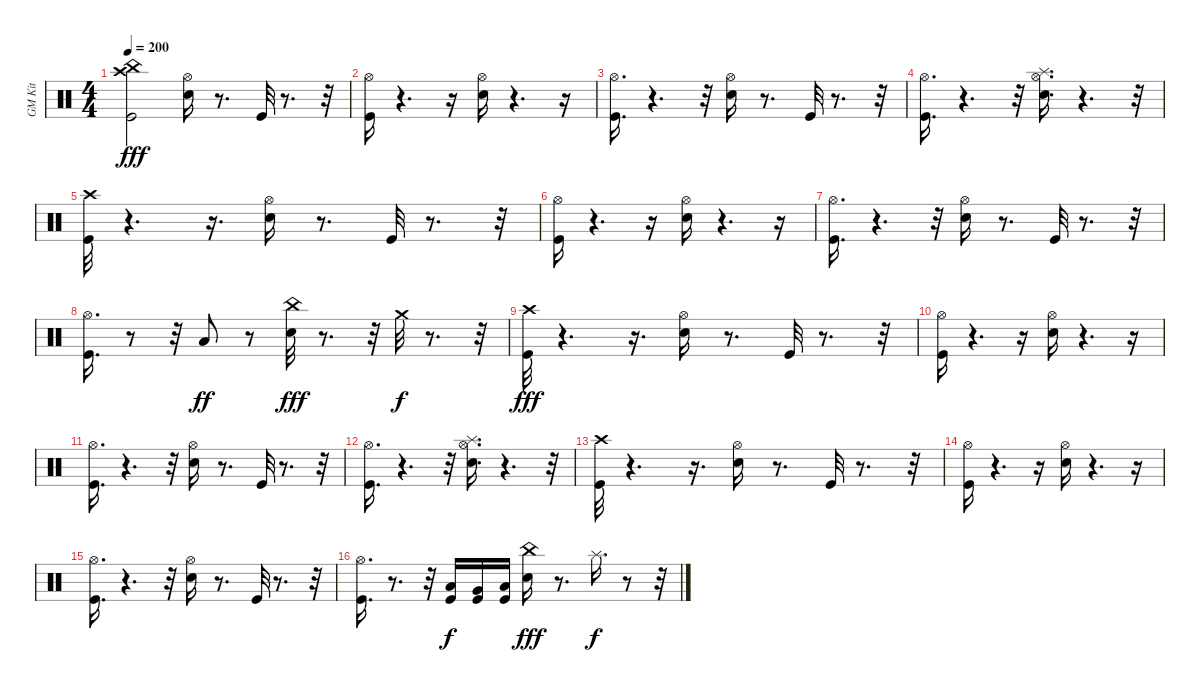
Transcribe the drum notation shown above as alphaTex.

\track ("GM Kit" "GM Kit") {instrument percussion}
\staff {score}
\articulation defaults
\ts (4 4)
\tempo 200
\clef neutral
\ks c
("Kick (hit)" "Crash high (hit)" "China (hit)").2{dy fff} ("Snare (hit) 2" "Hi-Hat (open)").16 r.8{d} "Kick (hit)".32 r.8{d} r.32 |
("Kick (hit)" "Hi-Hat (open)").16 r.4{d} r.16 ("Snare (hit) 2" "Hi-Hat (open)").16 r.4{d} r.16 |
("Kick (hit)" "Hi-Hat (open)").16{d} r.4{d} r.32 ("Snare (hit) 2" "Hi-Hat (open)").16 r.8{d} "Kick (hit)".32 r.8{d} r.32 |
("Kick (hit)" "Hi-Hat (open)").16{d} r.4{d} r.32 ("Snare (hit) 2" "Hi-Hat (open)" "Splash (hit)").16{d} r.4{d} r.32 |
("Kick (hit)" "Crash high (hit)").32 r.4{d} r.16{d} ("Snare (hit) 2" "Hi-Hat (open)").16 r.8{d} "Kick (hit)".32 r.8{d} r.32 |
("Kick (hit)" "Hi-Hat (open)").16 r.4{d} r.16 ("Snare (hit) 2" "Hi-Hat (open)").16 r.4{d} r.16 |
("Kick (hit)" "Hi-Hat (open)").16{d} r.4{d} r.32 ("Snare (hit) 2" "Hi-Hat (open)").16 r.8{d} "Kick (hit)".32 r.8{d} r.32 |
("Kick (hit)" "Hi-Hat (open)").16{d} r.8 r.32 "Low Tom (hit)".8{dy ff} r.8 ("Snare (hit) 2" "China (hit)").32{dy fff} r.8{d} r.32 "Crash medium (hit)".32{dy f} r.8{d} r.32 |
("Kick (hit)" "Crash high (hit)").32{dy fff} r.4{d} r.16{d} ("Snare (hit) 2" "Hi-Hat (open)").16 r.8{d} "Kick (hit)".32 r.8{d} r.32 |
("Kick (hit)" "Hi-Hat (open)").16 r.4{d} r.16 ("Snare (hit) 2" "Hi-Hat (open)").16 r.4{d} r.16 |
("Kick (hit)" "Hi-Hat (open)").16{d} r.4{d} r.32 ("Snare (hit) 2" "Hi-Hat (open)").16 r.8{d} "Kick (hit)".32 r.8{d} r.32 |
("Kick (hit)" "Hi-Hat (open)").16{d} r.4{d} r.32 ("Snare (hit) 2" "Hi-Hat (open)" "Splash (hit)").16{d} r.4{d} r.32 |
("Kick (hit)" "Crash high (hit)").32 r.4{d} r.16{d} ("Snare (hit) 2" "Hi-Hat (open)").16 r.8{d} "Kick (hit)".32 r.8{d} r.32 |
("Kick (hit)" "Hi-Hat (open)").16 r.4{d} r.16 ("Snare (hit) 2" "Hi-Hat (open)").16 r.4{d} r.16 |
("Kick (hit)" "Hi-Hat (open)").16{d} r.4{d} r.32 ("Snare (hit) 2" "Hi-Hat (open)").16 r.8{d} "Kick (hit)".32 r.8{d} r.32 |
("Kick (hit)" "Hi-Hat (open)").16{d} r.8{d} r.32 ("Kick (hit)" "Low Tom (hit)").16{dy f} ("Kick (hit)" "Very Low Tom (hit)").16 ("Kick (hit)" "Low Floor Tom (hit)").16 ("Snare (hit) 2" "China (hit)").16{dy fff} r.8{d} "Splash (hit)".16{d dy f} r.8 r.32
